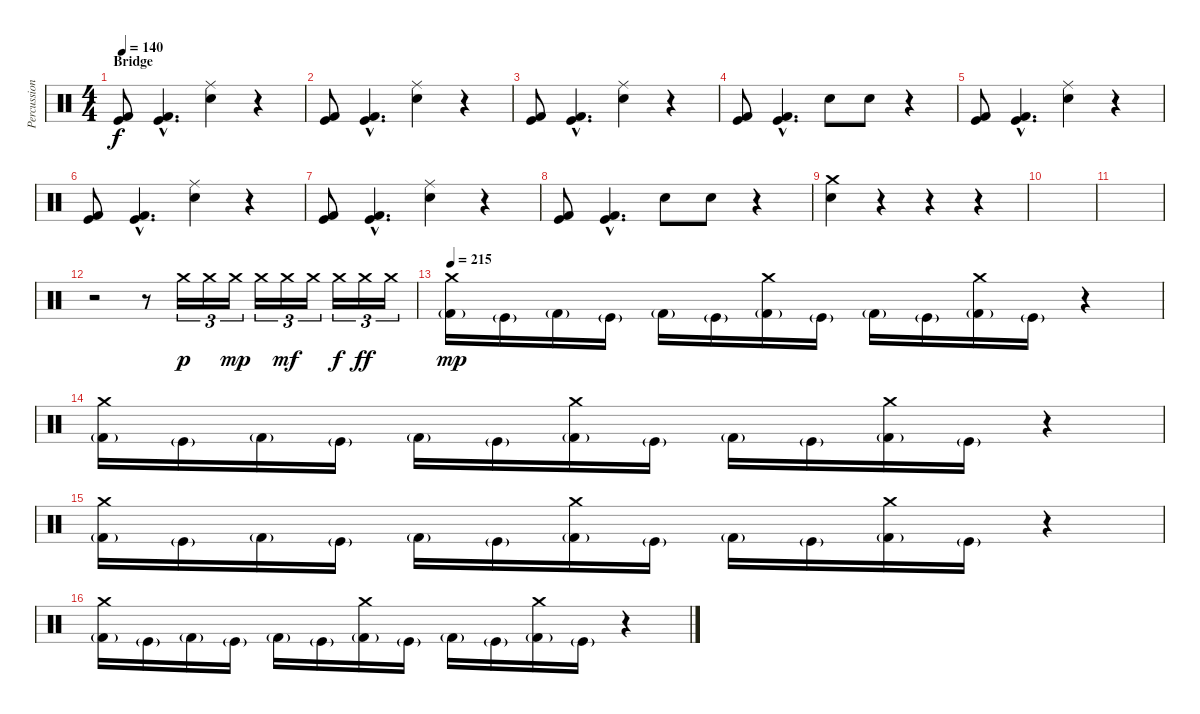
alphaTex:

\track ("Percussion" "Percussion") {instrument percussion}
\staff {score}
\articulation defaults
\ts (4 4)
\section ("" "Bridge")
\tempo 140
\clef neutral
\ks c
("Kick (hit) 2" "Kick (hit)").8{dy f} ("Kick (hit) 2"{hac} "Kick (hit)"{hac}).4{d} ("Electric Snare (hit)" "Ride (middle)").4 r.4 |
("Kick (hit) 2" "Kick (hit)").8 ("Kick (hit) 2"{hac} "Kick (hit)"{hac}).4{d} ("Electric Snare (hit)" "Ride (middle)").4 r.4 |
("Kick (hit) 2" "Kick (hit)").8 ("Kick (hit) 2"{hac} "Kick (hit)"{hac}).4{d} ("Electric Snare (hit)" "Ride (middle)").4 r.4 |
("Kick (hit) 2" "Kick (hit)").8 ("Kick (hit) 2"{hac} "Kick (hit)"{hac}).4{d} "Electric Snare (hit)".8 "Electric Snare (hit)".8 r.4 |
("Kick (hit) 2" "Kick (hit)").8 ("Kick (hit) 2"{hac} "Kick (hit)"{hac}).4{d} ("Electric Snare (hit)" "Ride (middle)").4 r.4 |
("Kick (hit) 2" "Kick (hit)").8 ("Kick (hit) 2"{hac} "Kick (hit)"{hac}).4{d} ("Electric Snare (hit)" "Ride (middle)").4 r.4 |
("Kick (hit) 2" "Kick (hit)").8 ("Kick (hit) 2"{hac} "Kick (hit)"{hac}).4{d} ("Electric Snare (hit)" "Ride (middle)").4 r.4 |
("Kick (hit) 2" "Kick (hit)").8 ("Kick (hit) 2"{hac} "Kick (hit)"{hac}).4{d} "Electric Snare (hit)".8 "Electric Snare (hit)".8 r.4 |
("Electric Snare (hit)" "Crash medium (hit)").4 r.4 r.4 r.4 |
|
|
r.2 r.8 "Crash medium (hit)".16{tu (3 2) dy p} "Crash medium (hit)".16{tu (3 2)} "Crash medium (hit)".16{tu (3 2) dy mp} "Crash medium (hit)".16{tu (3 2)} "Crash medium (hit)".16{tu (3 2) dy mf} "Crash medium (hit)".16{tu (3 2)} "Crash medium (hit)".16{tu (3 2) dy f} "Crash medium (hit)".16{tu (3 2) dy ff} "Crash medium (hit)".16{tu (3 2)} |
\tempo 215
("Crash medium (hit)" "Kick (hit) 2"{g}).16{dy mp} "Kick (hit)"{g}.16 "Kick (hit) 2"{g}.16 "Kick (hit)"{g}.16 "Kick (hit) 2"{g}.16 "Kick (hit)"{g}.16 ("Crash medium (hit)" "Kick (hit) 2"{g}).16 "Kick (hit)"{g}.16 "Kick (hit) 2"{g}.16 "Kick (hit)"{g}.16 ("Crash medium (hit)" "Kick (hit) 2"{g}).16 "Kick (hit)"{g}.16 r.4 |
("Crash medium (hit)" "Kick (hit) 2"{g}).16 "Kick (hit)"{g}.16 "Kick (hit) 2"{g}.16 "Kick (hit)"{g}.16 "Kick (hit) 2"{g}.16 "Kick (hit)"{g}.16 ("Crash medium (hit)" "Kick (hit) 2"{g}).16 "Kick (hit)"{g}.16 "Kick (hit) 2"{g}.16 "Kick (hit)"{g}.16 ("Crash medium (hit)" "Kick (hit) 2"{g}).16 "Kick (hit)"{g}.16 r.4 |
("Crash medium (hit)" "Kick (hit) 2"{g}).16 "Kick (hit)"{g}.16 "Kick (hit) 2"{g}.16 "Kick (hit)"{g}.16 "Kick (hit) 2"{g}.16 "Kick (hit)"{g}.16 ("Crash medium (hit)" "Kick (hit) 2"{g}).16 "Kick (hit)"{g}.16 "Kick (hit) 2"{g}.16 "Kick (hit)"{g}.16 ("Crash medium (hit)" "Kick (hit) 2"{g}).16 "Kick (hit)"{g}.16 r.4 |
("Crash medium (hit)" "Kick (hit) 2"{g}).16 "Kick (hit)"{g}.16 "Kick (hit) 2"{g}.16 "Kick (hit)"{g}.16 "Kick (hit) 2"{g}.16 "Kick (hit)"{g}.16 ("Crash medium (hit)" "Kick (hit) 2"{g}).16 "Kick (hit)"{g}.16 "Kick (hit) 2"{g}.16 "Kick (hit)"{g}.16 ("Crash medium (hit)" "Kick (hit) 2"{g}).16 "Kick (hit)"{g}.16 r.4
